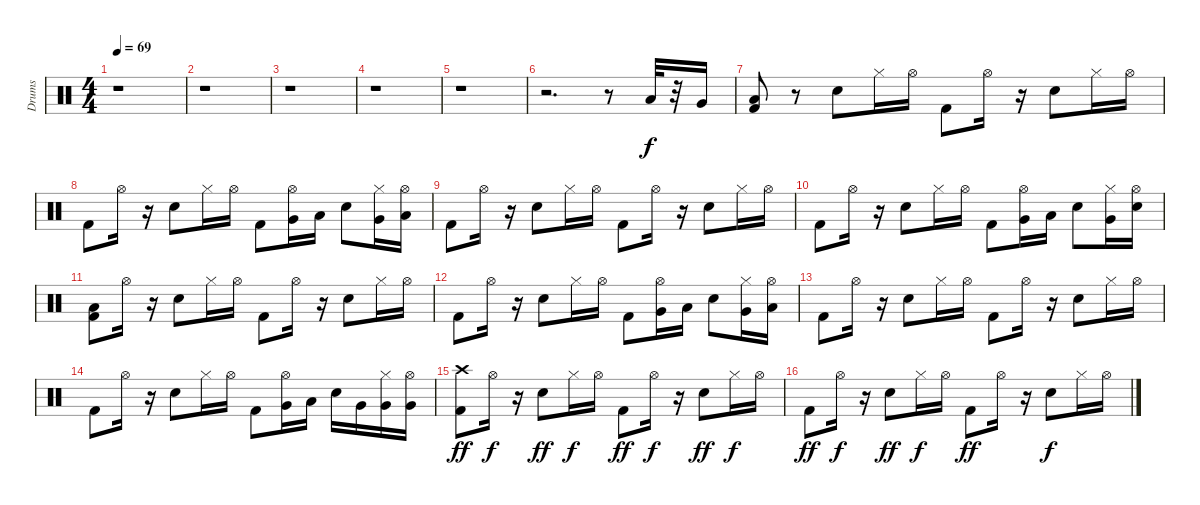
\track ("Drums" "Drums") {instrument percussion}
\staff {score}
\articulation defaults
\ts (4 4)
\tempo 69
\clef neutral
\ks c
r.1{dy f} |
r.1 |
r.1 |
r.1 |
r.1 |
r.2{d} r.8 "Low Tom (hit)".32 r.32 "Very Low Tom (hit)".16 |
("Low Floor Tom (hit)" "Kick (hit) 2").8 r.8 "Snare (hit) 2".8 "Hi-Hat (closed)".16 "Hi-Hat (open)".16 "Kick (hit) 2".8 "Hi-Hat (open)".16 r.16 "Snare (hit) 2".8 "Hi-Hat (closed)".16 "Hi-Hat (open)".16 |
"Kick (hit) 2".8 "Hi-Hat (open)".16 r.16 "Snare (hit) 2".8 "Hi-Hat (closed)".16 "Hi-Hat (open)".16 "Kick (hit) 2".8 ("Very Low Tom (hit)" "Hi-Hat (open)").16 "Low Floor Tom (hit)".16 "Snare (hit) 2".8 ("Very Low Tom (hit)" "Hi-Hat (closed)").16 ("Low Tom (hit)" "Hi-Hat (open)").16 |
"Kick (hit) 2".8 "Hi-Hat (open)".16 r.16 "Snare (hit) 2".8 "Hi-Hat (closed)".16 "Hi-Hat (open)".16 "Kick (hit) 2".8 "Hi-Hat (open)".16 r.16 "Snare (hit) 2".8 "Hi-Hat (closed)".16 "Hi-Hat (open)".16 |
"Kick (hit) 2".8 "Hi-Hat (open)".16 r.16 "Snare (hit) 2".8 "Hi-Hat (closed)".16 "Hi-Hat (open)".16 "Kick (hit) 2".8 ("Very Low Tom (hit)" "Hi-Hat (open)").16 "Low Floor Tom (hit)".16 "Snare (hit) 2".8 ("Very Low Tom (hit)" "Hi-Hat (closed)").16 ("Snare (hit) 2" "Hi-Hat (open)").16 |
("Low Floor Tom (hit)" "Kick (hit) 2").8 "Hi-Hat (open)".16 r.16 "Snare (hit) 2".8 "Hi-Hat (closed)".16 "Hi-Hat (open)".16 "Kick (hit) 2".8 "Hi-Hat (open)".16 r.16 "Snare (hit) 2".8 "Hi-Hat (closed)".16 "Hi-Hat (open)".16 |
"Kick (hit) 2".8 "Hi-Hat (open)".16 r.16 "Snare (hit) 2".8 "Hi-Hat (closed)".16 "Hi-Hat (open)".16 "Kick (hit) 2".8 ("Very Low Tom (hit)" "Hi-Hat (open)").16 "Low Floor Tom (hit)".16 "Snare (hit) 2".8 ("Very Low Tom (hit)" "Hi-Hat (closed)").16 ("Low Tom (hit)" "Hi-Hat (open)").16 |
"Kick (hit) 2".8 "Hi-Hat (open)".16 r.16 "Snare (hit) 2".8 "Hi-Hat (closed)".16 "Hi-Hat (open)".16 "Kick (hit) 2".8 "Hi-Hat (open)".16 r.16 "Snare (hit) 2".8 "Hi-Hat (closed)".16 "Hi-Hat (open)".16 |
"Kick (hit) 2".8 "Hi-Hat (open)".16 r.16 "Snare (hit) 2".8 "Hi-Hat (closed)".16 "Hi-Hat (open)".16 "Kick (hit) 2".8 ("Very Low Tom (hit)" "Hi-Hat (open)").16 "Low Floor Tom (hit)".16 "Snare (hit) 2".16 "Very Low Tom (hit)".16 ("Very Low Tom (hit)" "Hi-Hat (closed)").16 ("Very Low Tom (hit)" "Hi-Hat (open)").16 |
("Crash high (hit)" "Kick (hit) 2").8{dy ff} "Hi-Hat (open)".16{dy f} r.16 "Snare (hit) 2".8{dy ff} "Hi-Hat (closed)".16{dy f} "Hi-Hat (open)".16 "Kick (hit) 2".8{dy ff} "Hi-Hat (open)".16{dy f} r.16 "Snare (hit) 2".8{dy ff} "Hi-Hat (closed)".16{dy f} "Hi-Hat (open)".16 |
"Kick (hit) 2".8{dy ff} "Hi-Hat (open)".16{dy f} r.16 "Snare (hit) 2".8{dy ff} "Hi-Hat (closed)".16{dy f} "Hi-Hat (open)".16 "Kick (hit) 2".8{dy ff} "Hi-Hat (open)".16 r.16 "Snare (hit) 2".8{dy f} "Hi-Hat (closed)".16 "Hi-Hat (open)".16
